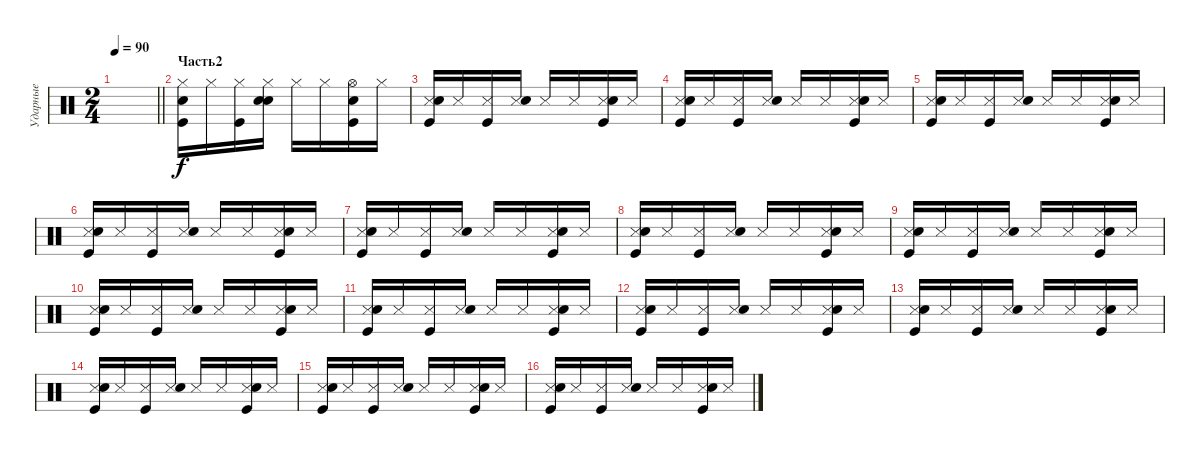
\track ("Ударные" "Ударные") {instrument percussion}
\staff {score}
\articulation defaults
\ts (2 4)
\tempo 90
\clef neutral
\barLineRight lightlight
\ks c
|
\section ("" "Часть2")
("Hi-Hat (closed)" "Kick (hit)" "Electric Snare (hit)").16 "Hi-Hat (closed)".16 ("Hi-Hat (closed)" "Kick (hit)").16 ("Hi-Hat (closed)" "Snare (hit) 2" "Electric Snare (hit)").16 "Hi-Hat (closed)".16 "Hi-Hat (closed)".16 ("Hi-Hat (open)" "Kick (hit)" "Electric Snare (hit)").16 "Hi-Hat (closed)".16 |
("Snare (side stick) 3" "Kick (hit)" "Electric Snare (hit)").16 "Snare (side stick) 3".16 ("Snare (side stick) 3" "Kick (hit)").16 ("Snare (side stick) 3" "Snare (hit) 2").16 "Snare (side stick) 3".16 "Snare (side stick) 3".16 ("Snare (side stick) 3" "Kick (hit)" "Electric Snare (hit)").16 "Snare (side stick) 3".16 |
("Snare (side stick) 3" "Kick (hit)" "Electric Snare (hit)").16 "Snare (side stick) 3".16 ("Snare (side stick) 3" "Kick (hit)").16 ("Snare (side stick) 3" "Snare (hit) 2").16 "Snare (side stick) 3".16 "Snare (side stick) 3".16 ("Snare (side stick) 3" "Kick (hit)" "Electric Snare (hit)").16 "Snare (side stick) 3".16 |
("Snare (side stick) 3" "Kick (hit)" "Electric Snare (hit)").16 "Snare (side stick) 3".16 ("Snare (side stick) 3" "Kick (hit)").16 ("Snare (side stick) 3" "Snare (hit) 2").16 "Snare (side stick) 3".16 "Snare (side stick) 3".16 ("Snare (side stick) 3" "Kick (hit)" "Electric Snare (hit)").16 "Snare (side stick) 3".16 |
("Snare (side stick) 3" "Kick (hit)" "Electric Snare (hit)").16 "Snare (side stick) 3".16 ("Snare (side stick) 3" "Kick (hit)").16 ("Snare (side stick) 3" "Snare (hit) 2").16 "Snare (side stick) 3".16 "Snare (side stick) 3".16 ("Snare (side stick) 3" "Kick (hit)" "Electric Snare (hit)").16 "Snare (side stick) 3".16 |
("Snare (side stick) 3" "Kick (hit)" "Electric Snare (hit)").16 "Snare (side stick) 3".16 ("Snare (side stick) 3" "Kick (hit)").16 ("Snare (side stick) 3" "Snare (hit) 2").16 "Snare (side stick) 3".16 "Snare (side stick) 3".16 ("Snare (side stick) 3" "Kick (hit)" "Electric Snare (hit)").16 "Snare (side stick) 3".16 |
("Snare (side stick) 3" "Kick (hit)" "Electric Snare (hit)").16 "Snare (side stick) 3".16 ("Snare (side stick) 3" "Kick (hit)").16 ("Snare (side stick) 3" "Snare (hit) 2").16 "Snare (side stick) 3".16 "Snare (side stick) 3".16 ("Snare (side stick) 3" "Kick (hit)" "Electric Snare (hit)").16 "Snare (side stick) 3".16 |
("Snare (side stick) 3" "Kick (hit)" "Electric Snare (hit)").16 "Snare (side stick) 3".16 ("Snare (side stick) 3" "Kick (hit)").16 ("Snare (side stick) 3" "Snare (hit) 2").16 "Snare (side stick) 3".16 "Snare (side stick) 3".16 ("Snare (side stick) 3" "Kick (hit)" "Electric Snare (hit)").16 "Snare (side stick) 3".16 |
("Snare (side stick) 3" "Kick (hit)" "Electric Snare (hit)").16 "Snare (side stick) 3".16 ("Snare (side stick) 3" "Kick (hit)").16 ("Snare (side stick) 3" "Snare (hit) 2").16 "Snare (side stick) 3".16 "Snare (side stick) 3".16 ("Snare (side stick) 3" "Kick (hit)" "Electric Snare (hit)").16 "Snare (side stick) 3".16 |
("Snare (side stick) 3" "Kick (hit)" "Electric Snare (hit)").16 "Snare (side stick) 3".16 ("Snare (side stick) 3" "Kick (hit)").16 ("Snare (side stick) 3" "Snare (hit) 2").16 "Snare (side stick) 3".16 "Snare (side stick) 3".16 ("Snare (side stick) 3" "Kick (hit)" "Electric Snare (hit)").16 "Snare (side stick) 3".16 |
("Snare (side stick) 3" "Kick (hit)" "Electric Snare (hit)").16 "Snare (side stick) 3".16 ("Snare (side stick) 3" "Kick (hit)").16 ("Snare (side stick) 3" "Snare (hit) 2").16 "Snare (side stick) 3".16 "Snare (side stick) 3".16 ("Snare (side stick) 3" "Kick (hit)" "Electric Snare (hit)").16 "Snare (side stick) 3".16 |
("Snare (side stick) 3" "Kick (hit)" "Electric Snare (hit)").16 "Snare (side stick) 3".16 ("Snare (side stick) 3" "Kick (hit)").16 ("Snare (side stick) 3" "Snare (hit) 2").16 "Snare (side stick) 3".16 "Snare (side stick) 3".16 ("Snare (side stick) 3" "Kick (hit)" "Electric Snare (hit)").16 "Snare (side stick) 3".16 |
("Snare (side stick) 3" "Kick (hit)" "Electric Snare (hit)").16 "Snare (side stick) 3".16 ("Snare (side stick) 3" "Kick (hit)").16 ("Snare (side stick) 3" "Snare (hit) 2").16 "Snare (side stick) 3".16 "Snare (side stick) 3".16 ("Snare (side stick) 3" "Kick (hit)" "Electric Snare (hit)").16 "Snare (side stick) 3".16 |
("Snare (side stick) 3" "Kick (hit)" "Electric Snare (hit)").16 "Snare (side stick) 3".16 ("Snare (side stick) 3" "Kick (hit)").16 ("Snare (side stick) 3" "Snare (hit) 2").16 "Snare (side stick) 3".16 "Snare (side stick) 3".16 ("Snare (side stick) 3" "Kick (hit)" "Electric Snare (hit)").16 "Snare (side stick) 3".16 |
("Snare (side stick) 3" "Kick (hit)" "Electric Snare (hit)").16 "Snare (side stick) 3".16 ("Snare (side stick) 3" "Kick (hit)").16 ("Snare (side stick) 3" "Snare (hit) 2").16 "Snare (side stick) 3".16 "Snare (side stick) 3".16 ("Snare (side stick) 3" "Kick (hit)" "Electric Snare (hit)").16 "Snare (side stick) 3".16
